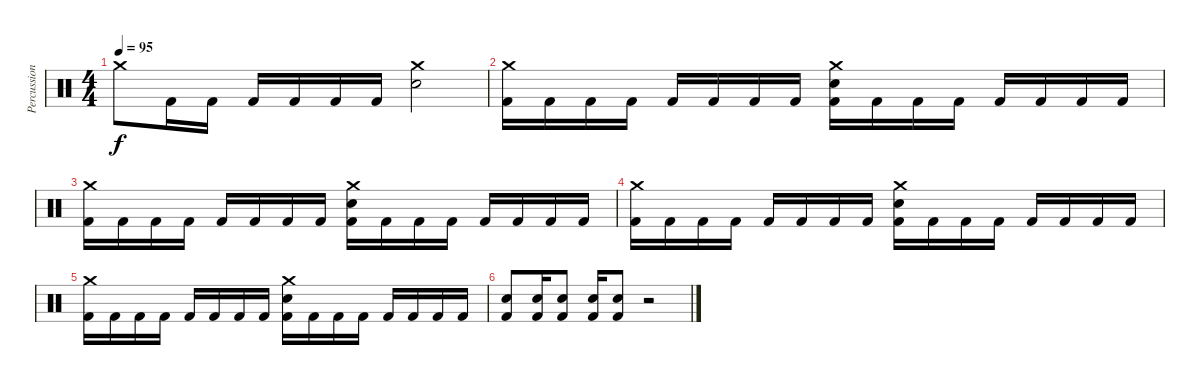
\track ("Percussion" "Percussion") {instrument percussion}
\staff {score}
\articulation defaults
\ts (4 4)
\tempo 95
\clef neutral
\ks c "Crash medium (hit)".8{dy f} "Kick (hit) 2".16 "Kick (hit) 2".16 "Kick (hit) 2".16 "Kick (hit) 2".16 "Kick (hit) 2".16 "Kick (hit) 2".16
("Crash medium (hit)" "Electric Snare (hit)").2 |
("Crash medium (hit)" "Kick (hit) 2").16 "Kick (hit) 2".16 "Kick (hit) 2".16 "Kick (hit) 2".16 "Kick (hit) 2".16 "Kick (hit) 2".16 "Kick (hit) 2".16 "Kick (hit) 2".16 ("Crash medium (hit)" "Electric Snare (hit)" "Kick (hit) 2").16 "Kick (hit) 2".16 "Kick (hit) 2".16 "Kick (hit) 2".16 "Kick (hit) 2".16 "Kick (hit) 2".16 "Kick (hit) 2".16 "Kick (hit) 2".16 |
("Crash medium (hit)" "Kick (hit) 2").16 "Kick (hit) 2".16 "Kick (hit) 2".16 "Kick (hit) 2".16 "Kick (hit) 2".16 "Kick (hit) 2".16 "Kick (hit) 2".16 "Kick (hit) 2".16 ("Crash medium (hit)" "Electric Snare (hit)" "Kick (hit) 2").16 "Kick (hit) 2".16 "Kick (hit) 2".16 "Kick (hit) 2".16 "Kick (hit) 2".16 "Kick (hit) 2".16 "Kick (hit) 2".16 "Kick (hit) 2".16 |
("Crash medium (hit)" "Kick (hit) 2").16 "Kick (hit) 2".16 "Kick (hit) 2".16 "Kick (hit) 2".16 "Kick (hit) 2".16 "Kick (hit) 2".16 "Kick (hit) 2".16 "Kick (hit) 2".16 ("Crash medium (hit)" "Electric Snare (hit)" "Kick (hit) 2").16 "Kick (hit) 2".16 "Kick (hit) 2".16 "Kick (hit) 2".16 "Kick (hit) 2".16 "Kick (hit) 2".16 "Kick (hit) 2".16 "Kick (hit) 2".16 |
("Crash medium (hit)" "Kick (hit) 2").16 "Kick (hit) 2".16 "Kick (hit) 2".16 "Kick (hit) 2".16 "Kick (hit) 2".16 "Kick (hit) 2".16 "Kick (hit) 2".16 "Kick (hit) 2".16 ("Crash medium (hit)" "Electric Snare (hit)" "Kick (hit) 2").16 "Kick (hit) 2".16 "Kick (hit) 2".16 "Kick (hit) 2".16 "Kick (hit) 2".16 "Kick (hit) 2".16 "Kick (hit) 2".16 "Kick (hit) 2".16 |
("Electric Snare (hit)" "Kick (hit) 2").8 ("Electric Snare (hit)" "Kick (hit) 2").16 ("Electric Snare (hit)" "Kick (hit) 2").8 ("Electric Snare (hit)" "Kick (hit) 2").16 ("Electric Snare (hit)" "Kick (hit) 2").8 r.2
